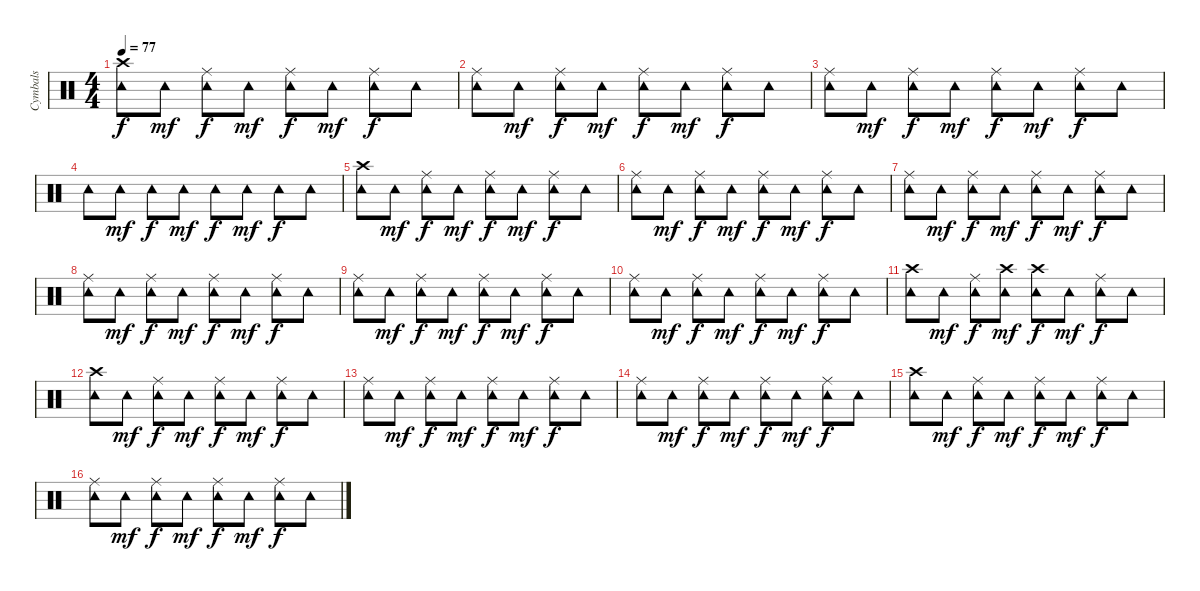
\track ("Cymbals" "Cymbals") {instrument percussion}
\staff {score}
\articulation defaults
\ts (4 4)
\tempo 77
\clef neutral
\ks c
("Tambourine (hit)" "Crash high (hit)").8{dy f} "Tambourine (hit)".8{dy mf} ("Tambourine (hit)" "Ride (middle)").8{dy f} "Tambourine (hit)".8{dy mf} ("Tambourine (hit)" "Ride (middle)").8{dy f} "Tambourine (hit)".8{dy mf} ("Tambourine (hit)" "Ride (middle)").8{dy f} "Tambourine (hit)".8 |
("Tambourine (hit)" "Ride (middle)").8 "Tambourine (hit)".8{dy mf} ("Tambourine (hit)" "Ride (middle)").8{dy f} "Tambourine (hit)".8{dy mf} ("Tambourine (hit)" "Ride (middle)").8{dy f} "Tambourine (hit)".8{dy mf} ("Tambourine (hit)" "Ride (middle)").8{dy f} "Tambourine (hit)".8 |
("Tambourine (hit)" "Ride (middle)").8 "Tambourine (hit)".8{dy mf} ("Tambourine (hit)" "Ride (middle)").8{dy f} "Tambourine (hit)".8{dy mf} ("Tambourine (hit)" "Ride (middle)").8{dy f} "Tambourine (hit)".8{dy mf} ("Tambourine (hit)" "Ride (middle)").8{dy f} "Tambourine (hit)".8 |
"Tambourine (hit)".8 "Tambourine (hit)".8{dy mf} "Tambourine (hit)".8{dy f} "Tambourine (hit)".8{dy mf} "Tambourine (hit)".8{dy f} "Tambourine (hit)".8{dy mf} "Tambourine (hit)".8{dy f} "Tambourine (hit)".8 |
("Tambourine (hit)" "Crash high (hit)").8 "Tambourine (hit)".8{dy mf} ("Tambourine (hit)" "Ride (middle)").8{dy f} "Tambourine (hit)".8{dy mf} ("Tambourine (hit)" "Ride (middle)").8{dy f} "Tambourine (hit)".8{dy mf} ("Tambourine (hit)" "Ride (middle)").8{dy f} "Tambourine (hit)".8 |
("Tambourine (hit)" "Ride (middle)").8 "Tambourine (hit)".8{dy mf} ("Tambourine (hit)" "Ride (middle)").8{dy f} "Tambourine (hit)".8{dy mf} ("Tambourine (hit)" "Ride (middle)").8{dy f} "Tambourine (hit)".8{dy mf} ("Tambourine (hit)" "Ride (middle)").8{dy f} "Tambourine (hit)".8 |
("Tambourine (hit)" "Ride (middle)").8 "Tambourine (hit)".8{dy mf} ("Tambourine (hit)" "Ride (middle)").8{dy f} "Tambourine (hit)".8{dy mf} ("Tambourine (hit)" "Ride (middle)").8{dy f} "Tambourine (hit)".8{dy mf} ("Tambourine (hit)" "Ride (middle)").8{dy f} "Tambourine (hit)".8 |
("Tambourine (hit)" "Ride (middle)").8 "Tambourine (hit)".8{dy mf} ("Tambourine (hit)" "Ride (middle)").8{dy f} "Tambourine (hit)".8{dy mf} ("Tambourine (hit)" "Ride (middle)").8{dy f} "Tambourine (hit)".8{dy mf} ("Tambourine (hit)" "Ride (middle)").8{dy f} "Tambourine (hit)".8 |
("Tambourine (hit)" "Ride (middle)").8 "Tambourine (hit)".8{dy mf} ("Tambourine (hit)" "Ride (middle)").8{dy f} "Tambourine (hit)".8{dy mf} ("Tambourine (hit)" "Ride (middle)").8{dy f} "Tambourine (hit)".8{dy mf} ("Tambourine (hit)" "Ride (middle)").8{dy f} "Tambourine (hit)".8 |
("Tambourine (hit)" "Ride (middle)").8 "Tambourine (hit)".8{dy mf} ("Tambourine (hit)" "Ride (middle)").8{dy f} "Tambourine (hit)".8{dy mf} ("Tambourine (hit)" "Ride (middle)").8{dy f} "Tambourine (hit)".8{dy mf} ("Tambourine (hit)" "Ride (middle)").8{dy f} "Tambourine (hit)".8 |
("Tambourine (hit)" "Crash high (hit)").8 "Tambourine (hit)".8{dy mf} ("Tambourine (hit)" "Ride (middle)").8{dy f} ("Tambourine (hit)" "Crash high (hit)").8{dy mf} ("Tambourine (hit)" "Crash high (hit)").8{dy f} "Tambourine (hit)".8{dy mf} ("Tambourine (hit)" "Ride (middle)").8{dy f} "Tambourine (hit)".8 |
("Tambourine (hit)" "Crash high (hit)").8 "Tambourine (hit)".8{dy mf} ("Tambourine (hit)" "Ride (middle)").8{dy f} "Tambourine (hit)".8{dy mf} ("Tambourine (hit)" "Ride (middle)").8{dy f} "Tambourine (hit)".8{dy mf} ("Tambourine (hit)" "Ride (middle)").8{dy f} "Tambourine (hit)".8 |
("Tambourine (hit)" "Ride (middle)").8 "Tambourine (hit)".8{dy mf} ("Tambourine (hit)" "Ride (middle)").8{dy f} "Tambourine (hit)".8{dy mf} ("Tambourine (hit)" "Ride (middle)").8{dy f} "Tambourine (hit)".8{dy mf} ("Tambourine (hit)" "Ride (middle)").8{dy f} "Tambourine (hit)".8 |
("Tambourine (hit)" "Ride (middle)").8 "Tambourine (hit)".8{dy mf} ("Tambourine (hit)" "Ride (middle)").8{dy f} "Tambourine (hit)".8{dy mf} ("Tambourine (hit)" "Ride (middle)").8{dy f} "Tambourine (hit)".8{dy mf} ("Tambourine (hit)" "Ride (middle)").8{dy f} "Tambourine (hit)".8 |
("Tambourine (hit)" "Crash high (hit)").8 "Tambourine (hit)".8{dy mf} ("Tambourine (hit)" "Ride (middle)").8{dy f} "Tambourine (hit)".8{dy mf} ("Tambourine (hit)" "Ride (middle)").8{dy f} "Tambourine (hit)".8{dy mf} ("Tambourine (hit)" "Ride (middle)").8{dy f} "Tambourine (hit)".8 |
("Tambourine (hit)" "Ride (middle)").8 "Tambourine (hit)".8{dy mf} ("Tambourine (hit)" "Ride (middle)").8{dy f} "Tambourine (hit)".8{dy mf} ("Tambourine (hit)" "Ride (middle)").8{dy f} "Tambourine (hit)".8{dy mf} ("Tambourine (hit)" "Ride (middle)").8{dy f} "Tambourine (hit)".8
